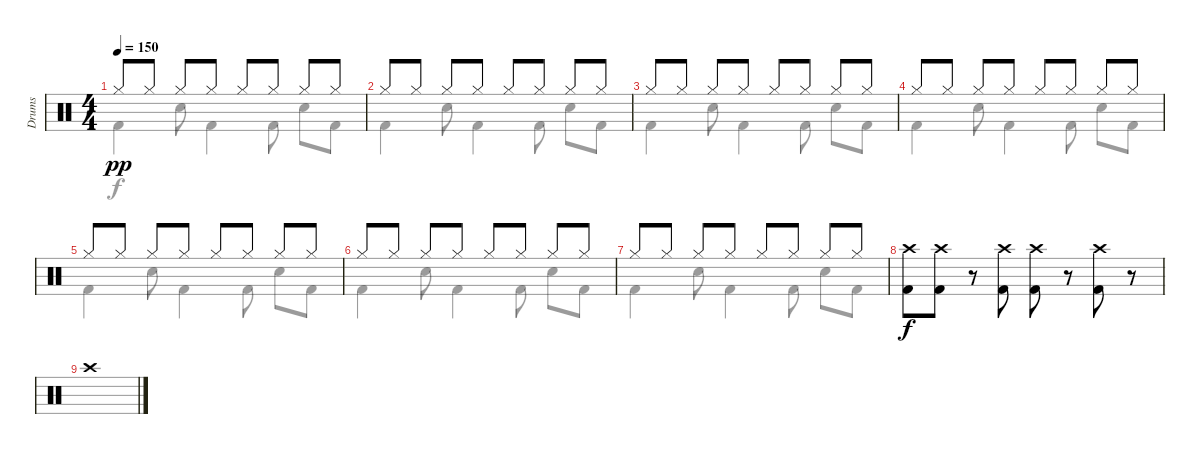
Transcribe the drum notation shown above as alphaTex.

\track ("Drums" "Drums") {instrument percussion}
\staff {score}
\articulation defaults
\voice
\ts (4 4)
\tempo 150
\clef neutral
\ks c "Hi-Hat (closed)".8{dy pp} "Hi-Hat (closed)".8 "Hi-Hat (closed)".8 "Hi-Hat (closed)".8 "Hi-Hat (closed)".8 "Hi-Hat (closed)".8 "Hi-Hat (closed)".8 "Hi-Hat (closed)".8
|
"Hi-Hat (closed)".8 "Hi-Hat (closed)".8 "Hi-Hat (closed)".8 "Hi-Hat (closed)".8 "Hi-Hat (closed)".8 "Hi-Hat (closed)".8 "Hi-Hat (closed)".8 "Hi-Hat (closed)".8 |
"Hi-Hat (closed)".8 "Hi-Hat (closed)".8 "Hi-Hat (closed)".8 "Hi-Hat (closed)".8 "Hi-Hat (closed)".8 "Hi-Hat (closed)".8 "Hi-Hat (closed)".8 "Hi-Hat (closed)".8 |
"Hi-Hat (closed)".8 "Hi-Hat (closed)".8 "Hi-Hat (closed)".8 "Hi-Hat (closed)".8 "Hi-Hat (closed)".8 "Hi-Hat (closed)".8 "Hi-Hat (closed)".8 "Hi-Hat (closed)".8 |
"Hi-Hat (closed)".8 "Hi-Hat (closed)".8 "Hi-Hat (closed)".8 "Hi-Hat (closed)".8 "Hi-Hat (closed)".8 "Hi-Hat (closed)".8 "Hi-Hat (closed)".8 "Hi-Hat (closed)".8 |
"Hi-Hat (closed)".8 "Hi-Hat (closed)".8 "Hi-Hat (closed)".8 "Hi-Hat (closed)".8 "Hi-Hat (closed)".8 "Hi-Hat (closed)".8 "Hi-Hat (closed)".8 "Hi-Hat (closed)".8 |
"Hi-Hat (closed)".8 "Hi-Hat (closed)".8 "Hi-Hat (closed)".8 "Hi-Hat (closed)".8 "Hi-Hat (closed)".8 "Hi-Hat (closed)".8 "Hi-Hat (closed)".8 "Hi-Hat (closed)".8 |
("Crash high (hit)" "Kick (hit) 2").8{dy f} ("Crash high (hit)" "Kick (hit) 2").8 r.8 ("Crash high (hit)" "Kick (hit) 2").8 ("Crash high (hit)" "Kick (hit) 2").8 r.8 ("Crash high (hit)" "Kick (hit) 2").8 r.8 |
"Crash high (hit)".1 |
|
\voice
\clef neutral
\ottava regular
\simile none
\ks c "Kick (hit) 2".4{dy f} "Electric Snare (hit)".8 "Kick (hit) 2".4 "Kick (hit) 2".8 "Electric Snare (hit)".8 "Kick (hit) 2".8
|
"Kick (hit) 2".4 "Electric Snare (hit)".8 "Kick (hit) 2".4 "Kick (hit) 2".8 "Electric Snare (hit)".8 "Kick (hit) 2".8 |
"Kick (hit) 2".4 "Electric Snare (hit)".8 "Kick (hit) 2".4 "Kick (hit) 2".8 "Electric Snare (hit)".8 "Kick (hit) 2".8 |
"Kick (hit) 2".4 "Electric Snare (hit)".8 "Kick (hit) 2".4 "Kick (hit) 2".8 "Electric Snare (hit)".8 "Kick (hit) 2".8 |
"Kick (hit) 2".4 "Electric Snare (hit)".8 "Kick (hit) 2".4 "Kick (hit) 2".8 "Electric Snare (hit)".8 "Kick (hit) 2".8 |
"Kick (hit) 2".4 "Electric Snare (hit)".8 "Kick (hit) 2".4 "Kick (hit) 2".8 "Electric Snare (hit)".8 "Kick (hit) 2".8 |
"Kick (hit) 2".4 "Electric Snare (hit)".8 "Kick (hit) 2".4 "Kick (hit) 2".8 "Electric Snare (hit)".8 "Kick (hit) 2".8 |
|
|
|
